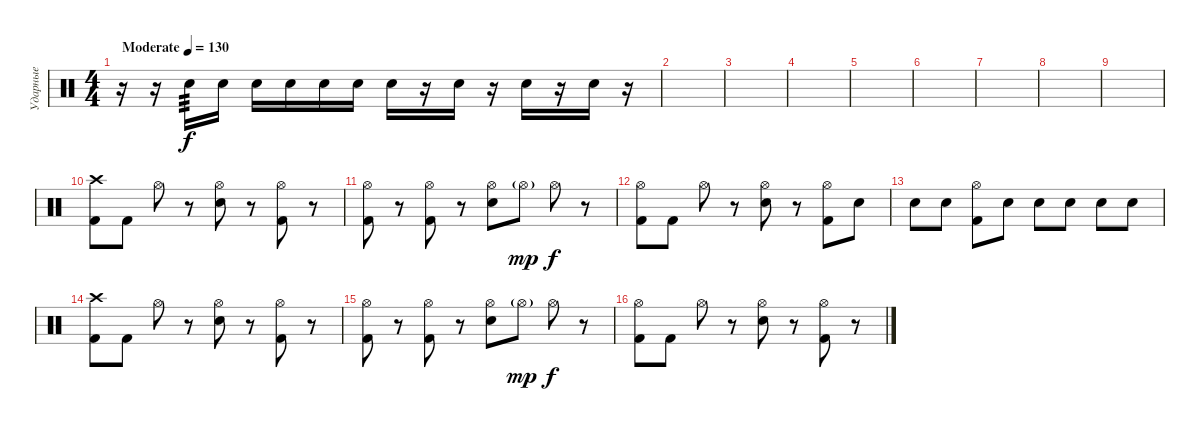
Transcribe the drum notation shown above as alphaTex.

\track ("Ударные" "Ударные") {instrument percussion}
\staff {score}
\articulation defaults
\ts (4 4)
\tempo (130 "Moderate")
\clef neutral
\ks c
r.16{dy f} r.16 "Snare (hit) 2".16{tp 3} "Snare (hit) 2".16 "Snare (hit) 2".16 "Snare (hit) 2".16 "Snare (hit) 2".16 "Snare (hit) 2".16 "Snare (hit) 2".16 r.16 "Snare (hit) 2".16 r.16 "Snare (hit) 2".16 r.16 "Snare (hit) 2".16 r.16 |
|
|
|
|
|
|
|
|
("Crash high (hit)" "Kick (hit) 2").8 "Kick (hit) 2".8 "Hi-Hat (open)".8 r.8 ("Hi-Hat (open)" "Snare (hit) 2").8 r.8 ("Hi-Hat (open)" "Kick (hit) 2").8 r.8 |
("Hi-Hat (open)" "Kick (hit) 2").8 r.8 ("Hi-Hat (open)" "Kick (hit) 2").8 r.8 ("Hi-Hat (open)" "Snare (hit) 2").8 "Hi-Hat (open)"{g}.8{dy mp} "Hi-Hat (open)".8{dy f} r.8 |
("Hi-Hat (open)" "Kick (hit) 2").8 "Kick (hit) 2".8 "Hi-Hat (open)".8 r.8 ("Hi-Hat (open)" "Snare (hit) 2").8 r.8 ("Hi-Hat (open)" "Kick (hit) 2").8 "Snare (hit) 2".8 |
"Snare (hit) 2".8 "Snare (hit) 2".8 ("Hi-Hat (open)" "Kick (hit) 2").8 "Snare (hit) 2".8 "Snare (hit) 2".8 "Snare (hit) 2".8 "Snare (hit) 2".8 "Snare (hit) 2".8 |
("Crash high (hit)" "Kick (hit) 2").8 "Kick (hit) 2".8 "Hi-Hat (open)".8 r.8 ("Hi-Hat (open)" "Snare (hit) 2").8 r.8 ("Hi-Hat (open)" "Kick (hit) 2").8 r.8 |
("Hi-Hat (open)" "Kick (hit) 2").8 r.8 ("Hi-Hat (open)" "Kick (hit) 2").8 r.8 ("Hi-Hat (open)" "Snare (hit) 2").8 "Hi-Hat (open)"{g}.8{dy mp} "Hi-Hat (open)".8{dy f} r.8 |
("Hi-Hat (open)" "Kick (hit) 2").8 "Kick (hit) 2".8 "Hi-Hat (open)".8 r.8 ("Hi-Hat (open)" "Snare (hit) 2").8 r.8 ("Hi-Hat (open)" "Kick (hit) 2").8 r.8
